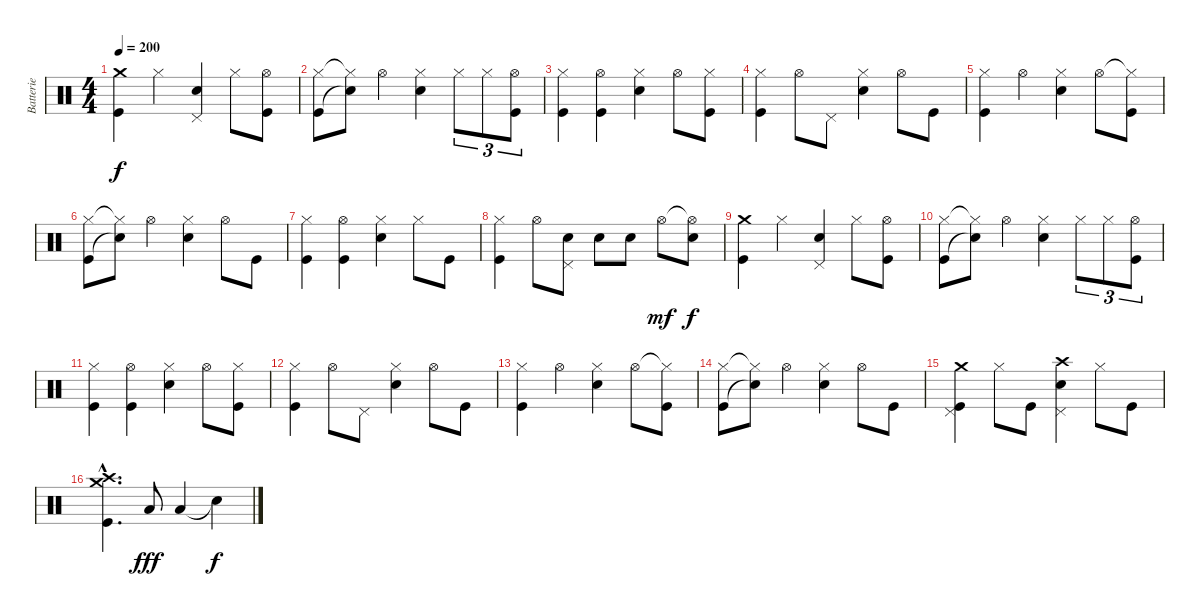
\track ("Batterie" "Batterie") {instrument percussion}
\staff {score}
\articulation defaults
\ts (4 4)
\tempo 200
\clef neutral
\ks c
("Crash medium (hit)" "Kick (hit)").4{dy f} "Hi-Hat (closed)".4 ("Pedal Hi-Hat (hit)" "Snare (hit) 2").4 "Hi-Hat (closed)".8 ("Hi-Hat (open)" "Kick (hit)").8 |
("Hi-Hat (closed)" "Kick (hit)").8 ("Hi-Hat (closed)"{t} "Snare (hit)"{t}).8 "Hi-Hat (open)".4 ("Hi-Hat (closed)" "Snare (hit) 2").4 "Hi-Hat (closed)".8{tu (3 2)} "Hi-Hat (closed)".8{tu (3 2)} ("Hi-Hat (open)" "Kick (hit)").8{tu (3 2)} |
("Hi-Hat (closed)" "Kick (hit)").4 ("Hi-Hat (open)" "Kick (hit)").4 ("Hi-Hat (closed)" "Snare (hit) 2").4 "Hi-Hat (open)".8 ("Hi-Hat (closed)" "Kick (hit)").8 |
("Hi-Hat (closed)" "Kick (hit)").4 "Hi-Hat (open)".8 "Pedal Hi-Hat (hit)".8 ("Hi-Hat (closed)" "Snare (hit) 2").4 "Hi-Hat (open)".8 "Kick (hit)".8 |
("Hi-Hat (closed)" "Kick (hit)").4 "Hi-Hat (open)".4 ("Hi-Hat (closed)" "Snare (hit) 2").4 "Hi-Hat (open)".8 ("Hi-Hat (closed)"{t} "Kick (hit)").8 |
("Hi-Hat (closed)" "Kick (hit)").8 ("Hi-Hat (closed)"{t} "Snare (hit)"{t}).8 "Hi-Hat (open)".4 ("Hi-Hat (closed)" "Snare (hit) 2").4 "Hi-Hat (open)".8 "Kick (hit)".8 |
("Hi-Hat (closed)" "Kick (hit)").4 ("Hi-Hat (open)" "Kick (hit)").4 ("Hi-Hat (closed)" "Snare (hit) 2").4 "Hi-Hat (closed)".8 "Kick (hit)".8 |
("Hi-Hat (closed)" "Kick (hit)").4 "Hi-Hat (open)".8 ("Pedal Hi-Hat (hit)" "Snare (hit) 2").8 "Snare (hit) 2".8 "Snare (hit) 2".8 "Hi-Hat (open)".8{dy mf} ("Hi-Hat (open)"{t} "Snare (hit) 2").8{dy f} |
("Crash medium (hit)" "Kick (hit)").4 "Hi-Hat (closed)".4 ("Pedal Hi-Hat (hit)" "Snare (hit) 2").4 "Hi-Hat (closed)".8 ("Hi-Hat (open)" "Kick (hit)").8 |
("Hi-Hat (closed)" "Kick (hit)").8 ("Hi-Hat (closed)"{t} "Snare (hit)"{t}).8 "Hi-Hat (open)".4 ("Hi-Hat (closed)" "Snare (hit) 2").4 "Hi-Hat (closed)".8{tu (3 2)} "Hi-Hat (closed)".8{tu (3 2)} ("Hi-Hat (open)" "Kick (hit)").8{tu (3 2)} |
("Hi-Hat (closed)" "Kick (hit)").4 ("Hi-Hat (open)" "Kick (hit)").4 ("Hi-Hat (closed)" "Snare (hit) 2").4 "Hi-Hat (open)".8 ("Hi-Hat (closed)" "Kick (hit)").8 |
("Hi-Hat (closed)" "Kick (hit)").4 "Hi-Hat (open)".8 "Pedal Hi-Hat (hit)".8 ("Hi-Hat (closed)" "Snare (hit) 2").4 "Hi-Hat (open)".8 "Kick (hit)".8 |
("Hi-Hat (closed)" "Kick (hit)").4 "Hi-Hat (open)".4 ("Hi-Hat (closed)" "Snare (hit) 2").4 "Hi-Hat (open)".8 ("Hi-Hat (closed)"{t} "Kick (hit)").8 |
("Hi-Hat (closed)" "Kick (hit)").8 ("Hi-Hat (closed)"{t} "Snare (hit)"{t}).8 "Hi-Hat (open)".4 ("Hi-Hat (closed)" "Snare (hit) 2").4 "Hi-Hat (open)".8 "Kick (hit)".8 |
("Crash medium (hit)" "Pedal Hi-Hat (hit)" "Kick (hit)").4 "Hi-Hat (closed)".8 "Kick (hit)".8 ("Crash high (hit)" "Pedal Hi-Hat (hit)" "Snare (hit) 2").4 "Hi-Hat (closed)".8 "Kick (hit)".8 |
("Crash medium (hit)"{hac} "Crash high (hit)"{hac} "Kick (hit)"{hac}).4{d} "Low Floor Tom (hit)".8{dy fff} "Low Tom (hit)".4 "Snare (hit)"{t}.4{dy f}
